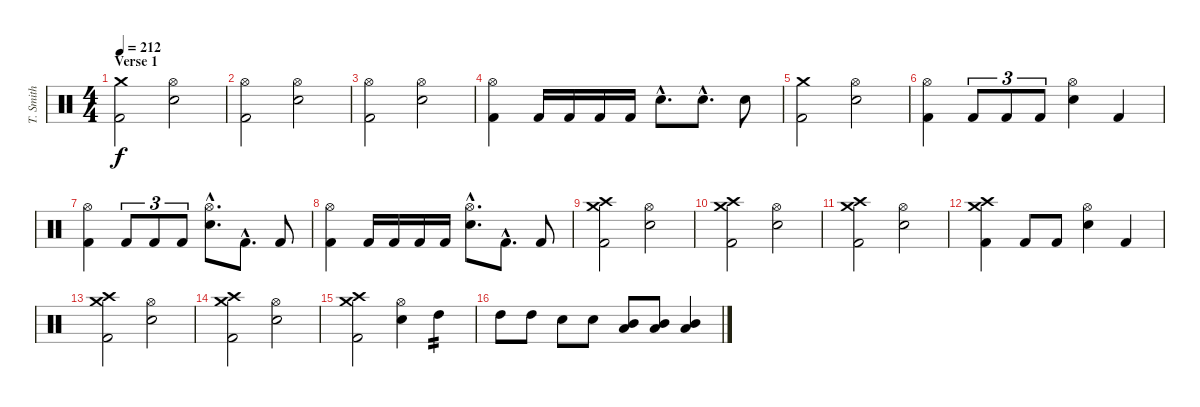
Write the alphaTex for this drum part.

\track ("T. Smith" "T. Smith") {instrument percussion}
\staff {score}
\articulation defaults
\ts (4 4)
\section ("" "Verse 1")
\tempo 212
\clef neutral
\ks c
("Crash medium (hit)" "Kick (hit) 2").2{dy f} ("Hi-Hat (open)" "Electric Snare (hit)").2 |
("Hi-Hat (open)" "Kick (hit) 2").2 ("Hi-Hat (open)" "Electric Snare (hit)").2 |
("Hi-Hat (open)" "Kick (hit) 2").2 ("Hi-Hat (open)" "Electric Snare (hit)").2 |
("Hi-Hat (open)" "Kick (hit) 2").4 "Kick (hit) 2".16 "Kick (hit) 2".16 "Kick (hit) 2".16 "Kick (hit) 2".16 "Electric Snare (hit)"{hac}.8{d} "Electric Snare (hit)"{hac}.8{d} "Electric Snare (hit)".8 |
("Crash medium (hit)" "Kick (hit) 2").2 ("Hi-Hat (open)" "Electric Snare (hit)").2 |
("Hi-Hat (open)" "Kick (hit) 2").4 "Kick (hit) 2".8{tu (3 2)} "Kick (hit) 2".8{tu (3 2)} "Kick (hit) 2".8{tu (3 2)} ("Hi-Hat (open)" "Electric Snare (hit)").4 "Kick (hit) 2".4 |
("Hi-Hat (open)" "Kick (hit) 2").4 "Kick (hit) 2".8{tu (3 2)} "Kick (hit) 2".8{tu (3 2)} "Kick (hit) 2".8{tu (3 2)} ("Hi-Hat (open)"{hac} "Electric Snare (hit)"{hac}).8{d} "Kick (hit) 2"{hac}.8{d} "Kick (hit) 2".8 |
("Hi-Hat (open)" "Kick (hit) 2").4 "Kick (hit) 2".16 "Kick (hit) 2".16 "Kick (hit) 2".16 "Kick (hit) 2".16 ("Hi-Hat (open)"{hac} "Electric Snare (hit)"{hac}).8{d} "Kick (hit) 2"{hac}.8{d} "Kick (hit) 2".8 |
("Crash medium (hit)" "Crash high (hit)" "Kick (hit) 2").2 ("Hi-Hat (open)" "Electric Snare (hit)").2 |
("Crash medium (hit)" "Crash high (hit)" "Kick (hit) 2").2 ("Hi-Hat (open)" "Electric Snare (hit)").2 |
("Crash medium (hit)" "Crash high (hit)" "Kick (hit) 2").2 ("Hi-Hat (open)" "Electric Snare (hit)").2 |
("Crash medium (hit)" "Crash high (hit)" "Kick (hit) 2").4 "Kick (hit) 2".8 "Kick (hit) 2".8 ("Hi-Hat (open)" "Electric Snare (hit)").4 "Kick (hit) 2".4 |
("Crash medium (hit)" "Crash high (hit)" "Kick (hit) 2").2 ("Hi-Hat (open)" "Electric Snare (hit)").2 |
("Crash medium (hit)" "Crash high (hit)" "Kick (hit) 2").2 ("Hi-Hat (open)" "Electric Snare (hit)").2 |
("Crash medium (hit)" "Crash high (hit)" "Kick (hit) 2").2 ("Hi-Hat (open)" "Electric Snare (hit)").4 "High Tom (hit)".4{tp 2} |
"High Tom (hit)".8 "High Tom (hit)".8 "Electric Snare (hit)".8 "Electric Snare (hit)".8 ("Mid Tom (hit)" "Low Tom (hit)").8 ("Mid Tom (hit)" "Low Tom (hit)").8 ("Mid Tom (hit)" "Low Tom (hit)").4
